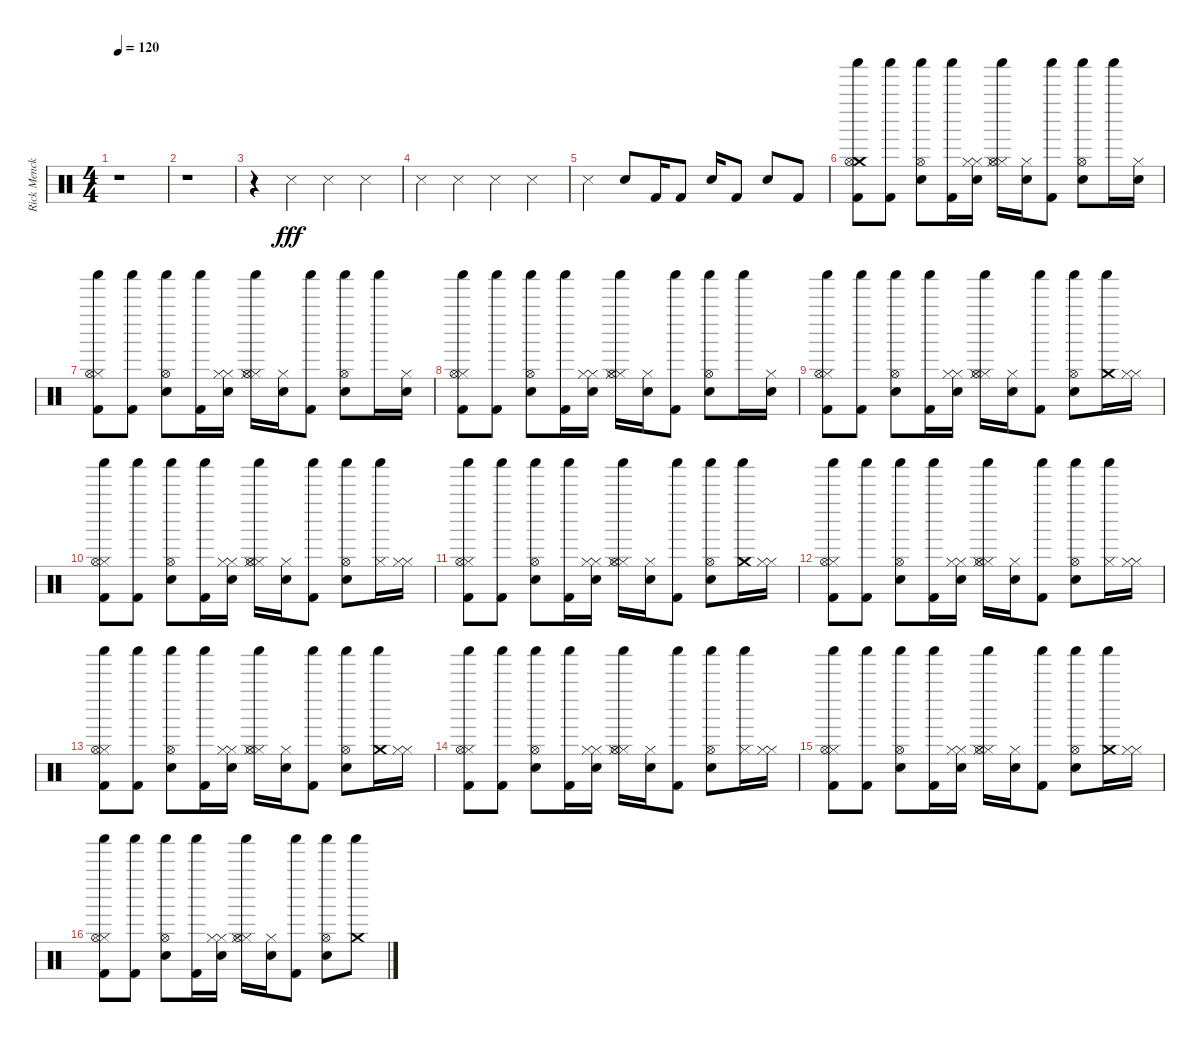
\track ("Rick Menck" "Rick Menck") {instrument percussion}
\staff {score}
\articulation defaults
\ts (4 4)
\tempo 120
\clef neutral
\ks c
r.1{dy fff} |
r.1 |
r.4 "Snare (side stick) 3".4 "Snare (side stick) 3".4 "Snare (side stick) 3".4 |
"Snare (side stick) 3".4 "Snare (side stick) 3".4 "Snare (side stick) 3".4 "Snare (side stick) 3".4 |
"Snare (side stick) 3".4 "Snare (hit) 2".8 "Kick (hit) 2".16 "Kick (hit) 2".8 "Snare (hit) 2".16 "Kick (hit) 2".8 "Snare (hit) 2".8 "Kick (hit) 2".8 |
("Shaker (hit)" "Kick (hit) 2" "Crash medium (hit)" "Hi-Hat (open)").8 ("Shaker (hit)" "Kick (hit) 2").8 ("Shaker (hit)" "Snare (hit) 2" "Hi-Hat (open)").8 ("Shaker (hit)" "Kick (hit) 2").16 ("Hi-Hat (closed)" "Snare (hit) 2" "Hi-Hat (closed)").16 ("Shaker (hit)" "Hi-Hat (closed)" "Hi-Hat (open)" "Hi-Hat (closed)").16 ("Hi-Hat (closed)" "Snare (hit) 2").16 ("Shaker (hit)" "Kick (hit) 2").8 ("Shaker (hit)" "Snare (hit) 2" "Hi-Hat (open)").8 "Shaker (hit)".16 ("Hi-Hat (closed)" "Snare (hit) 2").16 |
("Shaker (hit)" "Kick (hit) 2" "Hi-Hat (closed)" "Hi-Hat (open)").8 ("Shaker (hit)" "Kick (hit) 2").8 ("Shaker (hit)" "Snare (hit) 2" "Hi-Hat (open)").8 ("Shaker (hit)" "Kick (hit) 2").16 ("Hi-Hat (closed)" "Snare (hit) 2" "Hi-Hat (closed)").16 ("Shaker (hit)" "Hi-Hat (closed)" "Hi-Hat (open)" "Hi-Hat (closed)").16 ("Hi-Hat (closed)" "Snare (hit) 2").16 ("Shaker (hit)" "Kick (hit) 2").8 ("Shaker (hit)" "Snare (hit) 2" "Hi-Hat (open)").8 "Shaker (hit)".16 ("Hi-Hat (closed)" "Snare (hit) 2").16 |
("Shaker (hit)" "Kick (hit) 2" "Hi-Hat (closed)" "Hi-Hat (open)").8 ("Shaker (hit)" "Kick (hit) 2").8 ("Shaker (hit)" "Snare (hit) 2" "Hi-Hat (open)").8 ("Shaker (hit)" "Kick (hit) 2").16 ("Hi-Hat (closed)" "Snare (hit) 2" "Hi-Hat (closed)").16 ("Shaker (hit)" "Hi-Hat (closed)" "Hi-Hat (open)" "Hi-Hat (closed)").16 ("Hi-Hat (closed)" "Snare (hit) 2").16 ("Shaker (hit)" "Kick (hit) 2").8 ("Shaker (hit)" "Snare (hit) 2" "Hi-Hat (open)").8 "Shaker (hit)".16 ("Hi-Hat (closed)" "Snare (hit) 2").16 |
("Shaker (hit)" "Kick (hit) 2" "Hi-Hat (closed)" "Hi-Hat (open)").8 ("Shaker (hit)" "Kick (hit) 2").8 ("Shaker (hit)" "Snare (hit) 2" "Hi-Hat (open)").8 ("Shaker (hit)" "Kick (hit) 2").16 ("Hi-Hat (closed)" "Snare (hit) 2" "Hi-Hat (closed)").16 ("Shaker (hit)" "Hi-Hat (closed)" "Hi-Hat (open)" "Hi-Hat (closed)").16 ("Hi-Hat (closed)" "Snare (hit) 2").16 ("Shaker (hit)" "Kick (hit) 2").8 ("Shaker (hit)" "Snare (hit) 2" "Hi-Hat (open)").8 ("Shaker (hit)" "Crash medium (hit)").16 ("Hi-Hat (closed)" "Hi-Hat (closed)").16 |
("Shaker (hit)" "Kick (hit) 2" "Hi-Hat (closed)" "Hi-Hat (open)").8 ("Shaker (hit)" "Kick (hit) 2").8 ("Shaker (hit)" "Snare (hit) 2" "Hi-Hat (open)").8 ("Shaker (hit)" "Kick (hit) 2").16 ("Hi-Hat (closed)" "Snare (hit) 2" "Hi-Hat (closed)").16 ("Shaker (hit)" "Hi-Hat (closed)" "Hi-Hat (open)" "Hi-Hat (closed)").16 ("Hi-Hat (closed)" "Snare (hit) 2").16 ("Shaker (hit)" "Kick (hit) 2").8 ("Shaker (hit)" "Snare (hit) 2" "Hi-Hat (open)").8 ("Shaker (hit)" "Hi-Hat (closed)").16 ("Hi-Hat (closed)" "Hi-Hat (closed)").16 |
("Shaker (hit)" "Kick (hit) 2" "Hi-Hat (closed)" "Hi-Hat (open)").8 ("Shaker (hit)" "Kick (hit) 2").8 ("Shaker (hit)" "Snare (hit) 2" "Hi-Hat (open)").8 ("Shaker (hit)" "Kick (hit) 2").16 ("Hi-Hat (closed)" "Snare (hit) 2" "Hi-Hat (closed)").16 ("Shaker (hit)" "Hi-Hat (closed)" "Hi-Hat (open)" "Hi-Hat (closed)").16 ("Hi-Hat (closed)" "Snare (hit) 2").16 ("Shaker (hit)" "Kick (hit) 2").8 ("Shaker (hit)" "Snare (hit) 2" "Hi-Hat (open)").8 ("Shaker (hit)" "Crash medium (hit)").16 ("Hi-Hat (closed)" "Hi-Hat (closed)").16 |
("Shaker (hit)" "Kick (hit) 2" "Hi-Hat (closed)" "Hi-Hat (open)").8 ("Shaker (hit)" "Kick (hit) 2").8 ("Shaker (hit)" "Snare (hit) 2" "Hi-Hat (open)").8 ("Shaker (hit)" "Kick (hit) 2").16 ("Hi-Hat (closed)" "Snare (hit) 2" "Hi-Hat (closed)").16 ("Shaker (hit)" "Hi-Hat (closed)" "Hi-Hat (open)" "Hi-Hat (closed)").16 ("Hi-Hat (closed)" "Snare (hit) 2").16 ("Shaker (hit)" "Kick (hit) 2").8 ("Shaker (hit)" "Snare (hit) 2" "Hi-Hat (open)").8 ("Shaker (hit)" "Hi-Hat (closed)").16 ("Hi-Hat (closed)" "Hi-Hat (closed)").16 |
("Shaker (hit)" "Kick (hit) 2" "Hi-Hat (closed)" "Hi-Hat (open)").8 ("Shaker (hit)" "Kick (hit) 2").8 ("Shaker (hit)" "Snare (hit) 2" "Hi-Hat (open)").8 ("Shaker (hit)" "Kick (hit) 2").16 ("Hi-Hat (closed)" "Snare (hit) 2" "Hi-Hat (closed)").16 ("Shaker (hit)" "Hi-Hat (closed)" "Hi-Hat (open)" "Hi-Hat (closed)").16 ("Hi-Hat (closed)" "Snare (hit) 2").16 ("Shaker (hit)" "Kick (hit) 2").8 ("Shaker (hit)" "Snare (hit) 2" "Hi-Hat (open)").8 ("Shaker (hit)" "Crash medium (hit)").16 ("Hi-Hat (closed)" "Hi-Hat (closed)").16 |
("Shaker (hit)" "Kick (hit) 2" "Hi-Hat (closed)" "Hi-Hat (open)").8 ("Shaker (hit)" "Kick (hit) 2").8 ("Shaker (hit)" "Snare (hit) 2" "Hi-Hat (open)").8 ("Shaker (hit)" "Kick (hit) 2").16 ("Hi-Hat (closed)" "Snare (hit) 2" "Hi-Hat (closed)").16 ("Shaker (hit)" "Hi-Hat (closed)" "Hi-Hat (open)" "Hi-Hat (closed)").16 ("Hi-Hat (closed)" "Snare (hit) 2").16 ("Shaker (hit)" "Kick (hit) 2").8 ("Shaker (hit)" "Snare (hit) 2" "Hi-Hat (open)").8 ("Shaker (hit)" "Hi-Hat (closed)").16 ("Hi-Hat (closed)" "Hi-Hat (closed)").16 |
("Shaker (hit)" "Kick (hit) 2" "Hi-Hat (closed)" "Hi-Hat (open)").8 ("Shaker (hit)" "Kick (hit) 2").8 ("Shaker (hit)" "Snare (hit) 2" "Hi-Hat (open)").8 ("Shaker (hit)" "Kick (hit) 2").16 ("Hi-Hat (closed)" "Snare (hit) 2" "Hi-Hat (closed)").16 ("Shaker (hit)" "Hi-Hat (closed)" "Hi-Hat (open)" "Hi-Hat (closed)").16 ("Hi-Hat (closed)" "Snare (hit) 2").16 ("Shaker (hit)" "Kick (hit) 2").8 ("Shaker (hit)" "Snare (hit) 2" "Hi-Hat (open)").8 ("Shaker (hit)" "Crash medium (hit)").16 ("Hi-Hat (closed)" "Hi-Hat (closed)").16 |
("Shaker (hit)" "Kick (hit) 2" "Hi-Hat (closed)" "Hi-Hat (open)").8 ("Shaker (hit)" "Kick (hit) 2").8 ("Shaker (hit)" "Snare (hit) 2" "Hi-Hat (open)").8 ("Shaker (hit)" "Kick (hit) 2").16 ("Hi-Hat (closed)" "Snare (hit) 2" "Hi-Hat (closed)").16 ("Shaker (hit)" "Hi-Hat (closed)" "Hi-Hat (open)" "Hi-Hat (closed)").16 ("Hi-Hat (closed)" "Snare (hit) 2").16 ("Shaker (hit)" "Kick (hit) 2").8 ("Shaker (hit)" "Snare (hit) 2" "Hi-Hat (open)").8 ("Shaker (hit)" "Crash medium (hit)").8
